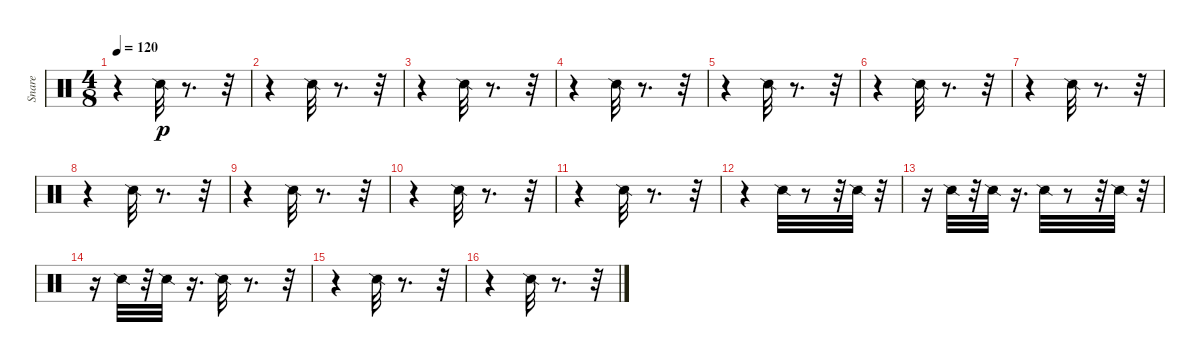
\track ("Snare" "Snare") {instrument percussion}
\staff {score}
\articulation defaults
\ts (4 8)
\tempo 120
\clef neutral
\ks c
r.4{dy p} "Snare (side stick) 2".32 r.8{d} r.32 |
r.4 "Snare (side stick) 2".32 r.8{d} r.32 |
r.4 "Snare (side stick) 2".32 r.8{d} r.32 |
r.4 "Snare (side stick) 2".32 r.8{d} r.32 |
r.4 "Snare (side stick) 2".32 r.8{d} r.32 |
r.4 "Snare (side stick) 2".32 r.8{d} r.32 |
r.4 "Snare (side stick) 2".32 r.8{d} r.32 |
r.4 "Snare (side stick) 2".32 r.8{d} r.32 |
r.4 "Snare (side stick) 2".32 r.8{d} r.32 |
r.4 "Snare (side stick) 2".32 r.8{d} r.32 |
r.4 "Snare (side stick) 2".32 r.8{d} r.32 |
r.4 "Snare (side stick) 2".32 r.8 r.32 "Snare (side stick) 2".32 r.32 |
r.16 "Snare (side stick) 2".32 r.32 "Snare (side stick) 2".32 r.16{d} "Snare (side stick) 2".32 r.8 r.32 "Snare (side stick) 2".32 r.32 |
r.16 "Snare (side stick) 2".32 r.32 "Snare (side stick) 2".32 r.16{d} "Snare (side stick) 2".32 r.8{d} r.32 |
r.4 "Snare (side stick) 2".32 r.8{d} r.32 |
r.4 "Snare (side stick) 2".32 r.8{d} r.32
